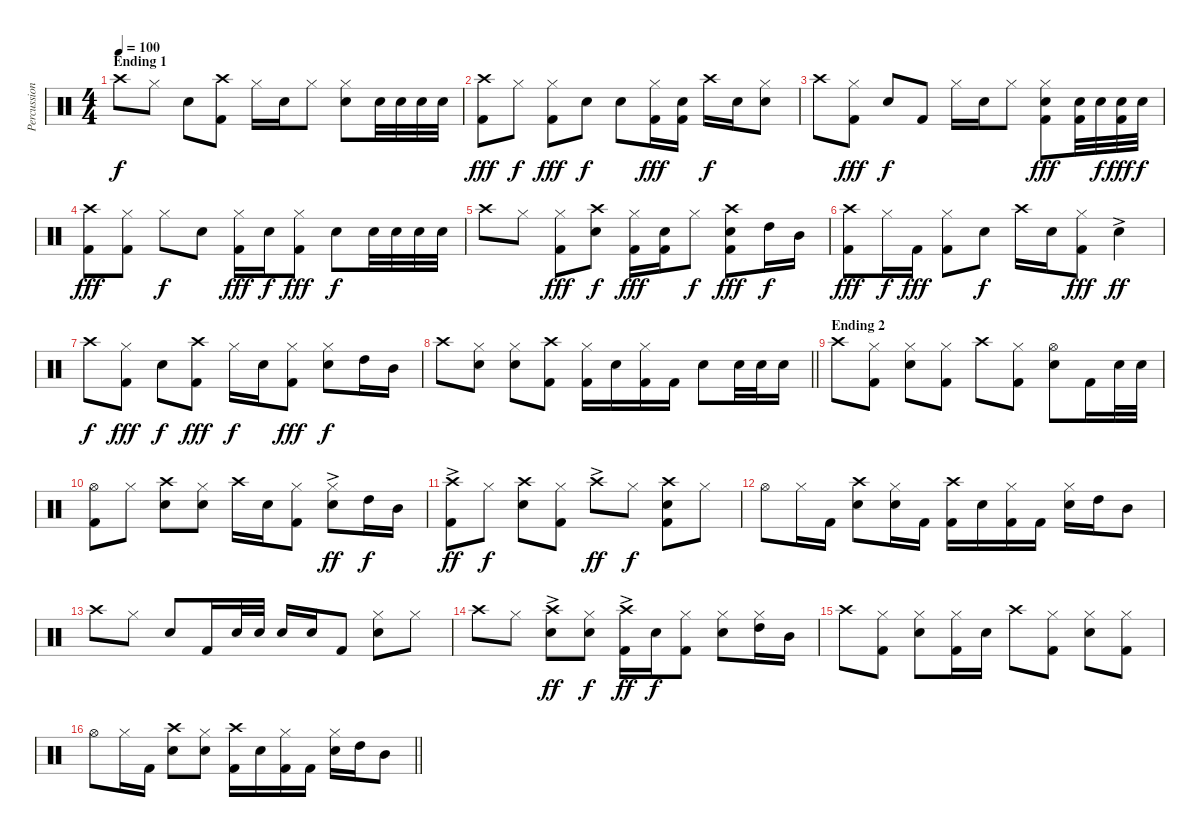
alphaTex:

\track ("Percussion" "Percussion") {instrument percussion}
\staff {score}
\articulation defaults
\ts (4 4)
\section ("" "Ending 1")
\tempo 100
\clef neutral
\ks c "Crash high (hit)".8{dy f} "Hi-Hat (closed)".8 "Electric Snare (hit)".8
("Crash high (hit)" "Kick (hit) 2").8 "Hi-Hat (closed)".16 "Electric Snare (hit)".16 "Hi-Hat (closed)".8 ("Electric Snare (hit)" "Hi-Hat (closed)").8 "Electric Snare (hit)".32 "Electric Snare (hit)".32 "Electric Snare (hit)".32 "Electric Snare (hit)".32 |
("Crash high (hit)" "Kick (hit) 2").8{dy fff} "Hi-Hat (closed)".8{dy f} ("Hi-Hat (closed)" "Kick (hit) 2").8{dy fff} "Electric Snare (hit)".8{dy f} "Electric Snare (hit)".8 ("Hi-Hat (closed)" "Kick (hit) 2").16{dy fff} ("Electric Snare (hit)" "Kick (hit) 2").16 "Crash high (hit)".16{dy f} "Electric Snare (hit)".16 ("Electric Snare (hit)" "Hi-Hat (closed)").8 |
"Crash high (hit)".8 ("Hi-Hat (closed)" "Kick (hit) 2").8{dy fff} "Electric Snare (hit)".8{dy f} "Kick (hit) 2".8 "Hi-Hat (closed)".16 "Electric Snare (hit)".16 "Hi-Hat (closed)".8 ("Electric Snare (hit)" "Hi-Hat (closed)" "Kick (hit) 2").8{dy fff} ("Electric Snare (hit)" "Kick (hit) 2").32 "Electric Snare (hit)".32{dy f} ("Electric Snare (hit)" "Kick (hit) 2").32{dy fff} "Electric Snare (hit)".32{dy f} |
("Crash high (hit)" "Kick (hit) 2").8{dy fff} ("Hi-Hat (closed)" "Kick (hit) 2").8 "Hi-Hat (closed)".8{dy f} "Electric Snare (hit)".8 ("Hi-Hat (closed)" "Kick (hit) 2").16{dy fff} "Electric Snare (hit)".16{dy f} ("Hi-Hat (closed)" "Kick (hit) 2").8{dy fff} "Electric Snare (hit)".8{dy f} "Electric Snare (hit)".32 "Electric Snare (hit)".32 "Electric Snare (hit)".32 "Electric Snare (hit)".32 |
"Crash high (hit)".8 "Hi-Hat (closed)".8 ("Hi-Hat (closed)" "Kick (hit) 2").8{dy fff} ("Electric Snare (hit)" "Crash high (hit)").8{dy f} ("Hi-Hat (closed)" "Kick (hit) 2").16{dy fff} ("Electric Snare (hit)" "Kick (hit) 2").16 "Hi-Hat (closed)".8{dy f} ("Electric Snare (hit)" "Crash high (hit)" "Kick (hit) 2").8{dy fff} "High Tom (hit)".16{dy f} "Mid Tom (hit)".16 |
("Crash high (hit)" "Kick (hit) 2").8{dy fff} "Hi-Hat (closed)".16{dy f} "Kick (hit) 2".16{dy fff} ("Hi-Hat (closed)" "Kick (hit) 2").8 "Electric Snare (hit)".8{dy f} "Crash high (hit)".16 "Electric Snare (hit)".16 ("Hi-Hat (closed)" "Kick (hit) 2").8{dy fff} "Electric Snare (hit)"{ac}.4{dy ff} |
"Crash high (hit)".8{dy f} ("Hi-Hat (closed)" "Kick (hit) 2").8{dy fff} "Electric Snare (hit)".8{dy f} ("Crash high (hit)" "Kick (hit) 2").8{dy fff} "Hi-Hat (closed)".16{dy f} "Electric Snare (hit)".16 ("Hi-Hat (closed)" "Kick (hit) 2").8{dy fff} ("Electric Snare (hit)" "Hi-Hat (closed)").8{dy f} "High Tom (hit)".16 "Mid Tom (hit)".16 |
\barLineRight lightlight "Crash high (hit)".8
("Electric Snare (hit)" "Hi-Hat (closed)").8 ("Electric Snare (hit)" "Hi-Hat (closed)").8 ("Crash high (hit)" "Kick (hit) 2").8 ("Hi-Hat (closed)" "Kick (hit) 2").16 "Electric Snare (hit)".16 ("Hi-Hat (closed)" "Kick (hit) 2").16 "Kick (hit) 2".16 "Electric Snare (hit)".8 "Electric Snare (hit)".32 "Electric Snare (hit)".32 "Electric Snare (hit)".16 |
\section ("" "Ending 2")
"Crash high (hit)".8 ("Hi-Hat (closed)" "Kick (hit) 2").8 ("Electric Snare (hit)" "Hi-Hat (closed)").8 ("Hi-Hat (closed)" "Kick (hit) 2").8 "Crash high (hit)".8 ("Hi-Hat (closed)" "Kick (hit) 2").8 ("Electric Snare (hit)" "Hi-Hat (open)").8 "Kick (hit) 2".16 "Electric Snare (hit)".32 "Electric Snare (hit)".32 |
("Hi-Hat (open)" "Kick (hit) 2").8 "Hi-Hat (closed)".8 ("Electric Snare (hit)" "Crash high (hit)").8 ("Electric Snare (hit)" "Hi-Hat (closed)").8 "Crash high (hit)".16 "Electric Snare (hit)".16 ("Hi-Hat (closed)" "Kick (hit) 2").8 ("Electric Snare (hit)"{ac} "Hi-Hat (closed)").8{dy ff} "High Tom (hit)".16{dy f} "Mid Tom (hit)".16 |
("Crash high (hit)"{ac} "Kick (hit) 2").8{dy ff} "Hi-Hat (closed)".8{dy f} ("Electric Snare (hit)" "Crash high (hit)").8 ("Hi-Hat (closed)" "Kick (hit) 2").8 "Crash high (hit)"{ac}.8{dy ff} "Hi-Hat (closed)".8{dy f} ("Electric Snare (hit)" "Crash high (hit)" "Kick (hit) 2").8 "Hi-Hat (closed)".8 |
"Hi-Hat (open)".8 "Hi-Hat (closed)".16 "Kick (hit) 2".16 ("Electric Snare (hit)" "Crash high (hit)").8 ("Electric Snare (hit)" "Hi-Hat (closed)").16 "Kick (hit) 2".16 ("Crash high (hit)" "Kick (hit) 2").16 "Electric Snare (hit)".16 ("Hi-Hat (closed)" "Kick (hit) 2").16 "Kick (hit) 2".16 ("Electric Snare (hit)" "Hi-Hat (closed)").16 "High Tom (hit)".16 "Mid Tom (hit)".8 |
"Crash high (hit)".8 "Hi-Hat (closed)".8 "Electric Snare (hit)".8 "Kick (hit) 2".16 "Electric Snare (hit)".32 "Electric Snare (hit)".32 "Electric Snare (hit)".16 "Electric Snare (hit)".16 "Kick (hit) 2".8 ("Electric Snare (hit)" "Hi-Hat (closed)").8 "Hi-Hat (closed)".8 |
"Crash high (hit)".8 "Hi-Hat (closed)".8 ("Electric Snare (hit)" "Crash high (hit)"{ac}).8{dy ff} ("Electric Snare (hit)" "Hi-Hat (closed)").8{dy f} ("Crash high (hit)"{ac} "Kick (hit) 2").16{dy ff} "Electric Snare (hit)".16{dy f} ("Hi-Hat (closed)" "Kick (hit) 2").8 ("Electric Snare (hit)" "Hi-Hat (closed)").8 ("High Tom (hit)" "Hi-Hat (closed)").16 "Mid Tom (hit)".16 |
"Crash high (hit)".8 ("Hi-Hat (closed)" "Kick (hit) 2").8 ("Electric Snare (hit)" "Hi-Hat (closed)").8 ("Hi-Hat (closed)" "Kick (hit) 2").16 "Electric Snare (hit)".16 "Crash high (hit)".8 ("Hi-Hat (closed)" "Kick (hit) 2").8 ("Electric Snare (hit)" "Hi-Hat (closed)").8 ("Hi-Hat (closed)" "Kick (hit) 2").8 |
\barLineRight lightlight "Hi-Hat (open)".8 "Hi-Hat (closed)".16 "Kick (hit) 2".16
("Electric Snare (hit)" "Crash high (hit)").8 ("Electric Snare (hit)" "Hi-Hat (closed)").8 ("Crash high (hit)" "Kick (hit) 2").16 "Electric Snare (hit)".16 ("Hi-Hat (closed)" "Kick (hit) 2").16 "Kick (hit) 2".16 ("Electric Snare (hit)" "Hi-Hat (closed)").16 "High Tom (hit)".16 "Mid Tom (hit)".8
